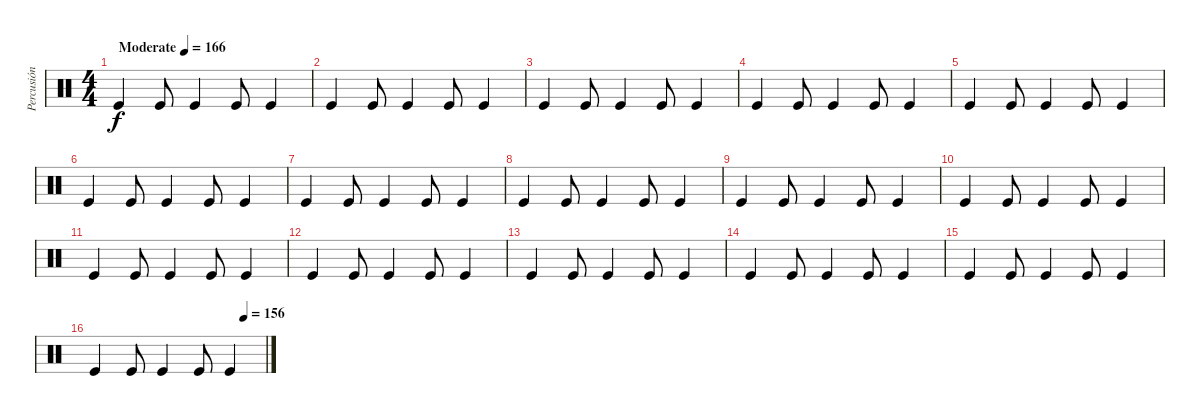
\track ("Percusión" "Percusión") {instrument percussion}
\staff {score}
\articulation defaults
\ts (4 4)
\tempo (166 "Moderate")
\clef neutral
\ks c "Kick (hit)".4{dy f} "Kick (hit)".8 "Kick (hit)".4 "Kick (hit)".8 "Kick (hit)".4
|
"Kick (hit)".4 "Kick (hit)".8 "Kick (hit)".4 "Kick (hit)".8 "Kick (hit)".4 |
"Kick (hit)".4 "Kick (hit)".8 "Kick (hit)".4 "Kick (hit)".8 "Kick (hit)".4 |
"Kick (hit)".4 "Kick (hit)".8 "Kick (hit)".4 "Kick (hit)".8 "Kick (hit)".4 |
"Kick (hit)".4 "Kick (hit)".8 "Kick (hit)".4 "Kick (hit)".8 "Kick (hit)".4 |
"Kick (hit)".4 "Kick (hit)".8 "Kick (hit)".4 "Kick (hit)".8 "Kick (hit)".4 |
"Kick (hit)".4 "Kick (hit)".8 "Kick (hit)".4 "Kick (hit)".8 "Kick (hit)".4 |
"Kick (hit)".4 "Kick (hit)".8 "Kick (hit)".4 "Kick (hit)".8 "Kick (hit)".4 |
"Kick (hit)".4 "Kick (hit)".8 "Kick (hit)".4 "Kick (hit)".8 "Kick (hit)".4 |
"Kick (hit)".4 "Kick (hit)".8 "Kick (hit)".4 "Kick (hit)".8 "Kick (hit)".4 |
"Kick (hit)".4 "Kick (hit)".8 "Kick (hit)".4 "Kick (hit)".8 "Kick (hit)".4 |
"Kick (hit)".4 "Kick (hit)".8 "Kick (hit)".4 "Kick (hit)".8 "Kick (hit)".4 |
"Kick (hit)".4 "Kick (hit)".8 "Kick (hit)".4 "Kick (hit)".8 "Kick (hit)".4 |
"Kick (hit)".4 "Kick (hit)".8 "Kick (hit)".4 "Kick (hit)".8 "Kick (hit)".4 |
"Kick (hit)".4 "Kick (hit)".8 "Kick (hit)".4 "Kick (hit)".8 "Kick (hit)".4 |
\tempo (156 0.875)
"Kick (hit)".4 "Kick (hit)".8 "Kick (hit)".4 "Kick (hit)".8 "Kick (hit)".4
